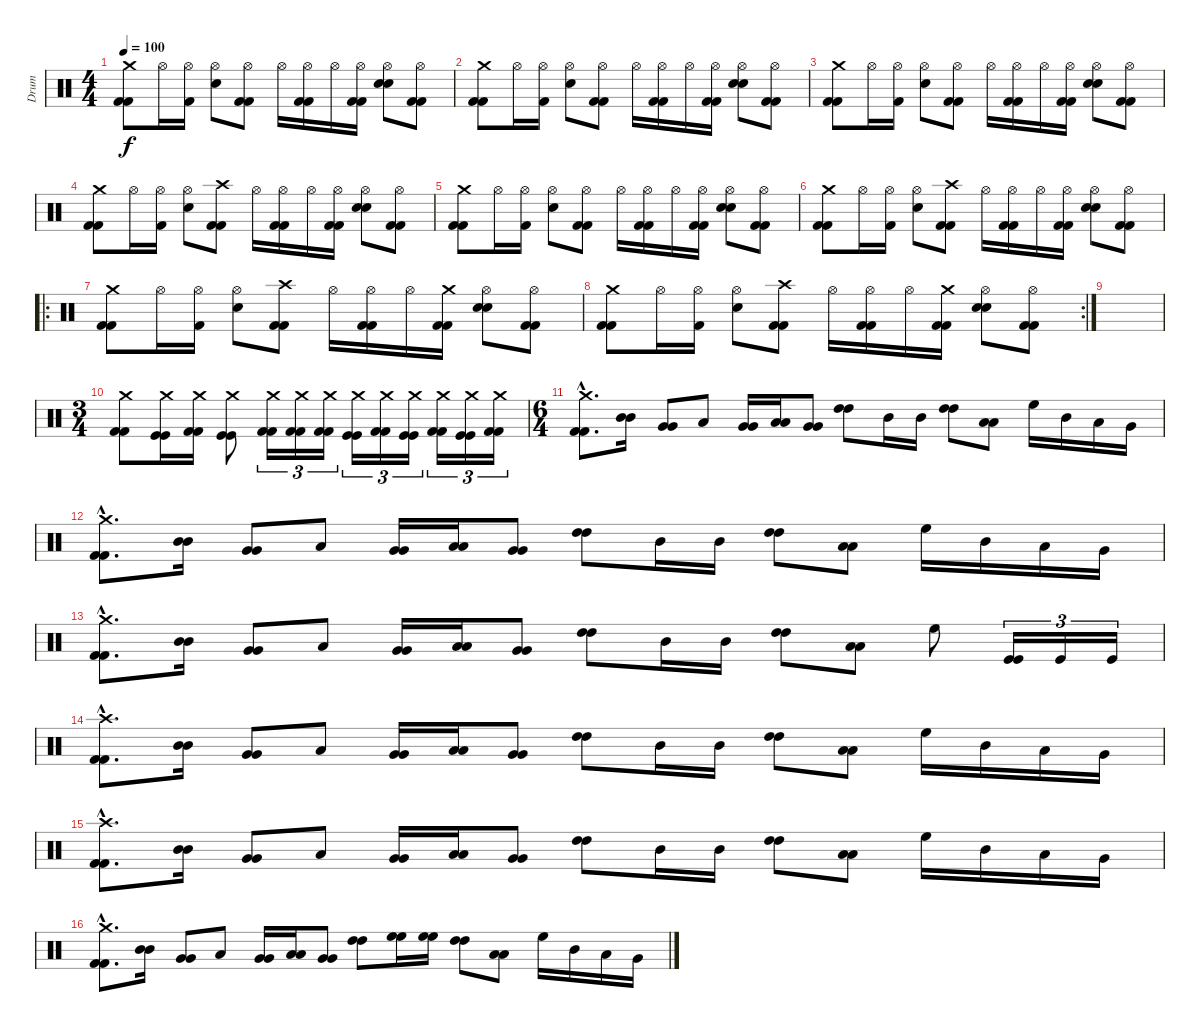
\track ("Drum" "Drum") {instrument percussion}
\staff {score}
\articulation defaults
\ts (4 4)
\tempo 100
\clef neutral
\ks c
("Crash medium (hit)" "Kick (hit) 2" "Kick (hit) 2").8{dy f} "Hi-Hat (open)".16 ("Hi-Hat (open)" "Kick (hit) 2").16 ("Hi-Hat (open)" "Snare (hit) 2").8 ("Hi-Hat (open)" "Kick (hit) 2" "Kick (hit) 2").8 "Hi-Hat (open)".16 ("Hi-Hat (open)" "Kick (hit) 2" "Kick (hit) 2").16 "Hi-Hat (open)".16 ("Hi-Hat (open)" "Kick (hit) 2" "Kick (hit) 2").16 ("Hi-Hat (open)" "Snare (hit) 2" "Snare (hit) 2").8 ("Hi-Hat (open)" "Kick (hit) 2" "Kick (hit) 2").8 |
("Crash medium (hit)" "Kick (hit) 2" "Kick (hit) 2").8 "Hi-Hat (open)".16 ("Hi-Hat (open)" "Kick (hit) 2").16 ("Hi-Hat (open)" "Snare (hit) 2").8 ("Hi-Hat (open)" "Kick (hit) 2" "Kick (hit) 2").8 "Hi-Hat (open)".16 ("Hi-Hat (open)" "Kick (hit) 2" "Kick (hit) 2").16 "Hi-Hat (open)".16 ("Hi-Hat (open)" "Kick (hit) 2" "Kick (hit) 2").16 ("Hi-Hat (open)" "Snare (hit) 2" "Snare (hit) 2").8 ("Hi-Hat (open)" "Kick (hit) 2" "Kick (hit) 2").8 |
("Crash medium (hit)" "Kick (hit) 2" "Kick (hit) 2").8 "Hi-Hat (open)".16 ("Hi-Hat (open)" "Kick (hit) 2").16 ("Hi-Hat (open)" "Snare (hit) 2").8 ("Hi-Hat (open)" "Kick (hit) 2" "Kick (hit) 2").8 "Hi-Hat (open)".16 ("Hi-Hat (open)" "Kick (hit) 2" "Kick (hit) 2").16 "Hi-Hat (open)".16 ("Hi-Hat (open)" "Kick (hit) 2" "Kick (hit) 2").16 ("Hi-Hat (open)" "Snare (hit) 2" "Snare (hit) 2").8 ("Hi-Hat (open)" "Kick (hit) 2" "Kick (hit) 2").8 |
("Crash medium (hit)" "Kick (hit) 2" "Kick (hit) 2").8 "Hi-Hat (open)".16 ("Hi-Hat (open)" "Kick (hit) 2").16 ("Hi-Hat (open)" "Snare (hit) 2").8 ("Crash high (hit)" "Kick (hit) 2" "Kick (hit) 2").8 "Hi-Hat (open)".16 ("Hi-Hat (open)" "Kick (hit) 2" "Kick (hit) 2").16 "Hi-Hat (open)".16 ("Hi-Hat (open)" "Kick (hit) 2" "Kick (hit) 2").16 ("Hi-Hat (open)" "Snare (hit) 2" "Snare (hit) 2").8 ("Hi-Hat (open)" "Kick (hit) 2" "Kick (hit) 2").8 |
("Crash medium (hit)" "Kick (hit) 2" "Kick (hit) 2").8 "Hi-Hat (open)".16 ("Hi-Hat (open)" "Kick (hit) 2").16 ("Hi-Hat (open)" "Snare (hit) 2").8 ("Hi-Hat (open)" "Kick (hit) 2" "Kick (hit) 2").8 "Hi-Hat (open)".16 ("Hi-Hat (open)" "Kick (hit) 2" "Kick (hit) 2").16 "Hi-Hat (open)".16 ("Hi-Hat (open)" "Kick (hit) 2" "Kick (hit) 2").16 ("Hi-Hat (open)" "Snare (hit) 2" "Snare (hit) 2").8 ("Hi-Hat (open)" "Kick (hit) 2" "Kick (hit) 2").8 |
("Crash medium (hit)" "Kick (hit) 2" "Kick (hit) 2").8 "Hi-Hat (open)".16 ("Hi-Hat (open)" "Kick (hit) 2").16 ("Hi-Hat (open)" "Snare (hit) 2").8 ("Crash high (hit)" "Kick (hit) 2" "Kick (hit) 2").8 "Hi-Hat (open)".16 ("Hi-Hat (open)" "Kick (hit) 2" "Kick (hit) 2").16 "Hi-Hat (open)".16 ("Hi-Hat (open)" "Kick (hit) 2" "Kick (hit) 2").16 ("Hi-Hat (open)" "Snare (hit) 2" "Snare (hit) 2").8 ("Hi-Hat (open)" "Kick (hit) 2" "Kick (hit) 2").8 |
\ro
("Crash medium (hit)" "Kick (hit) 2" "Kick (hit) 2").8 "Hi-Hat (open)".16 ("Hi-Hat (open)" "Kick (hit) 2").16 ("Hi-Hat (open)" "Snare (hit) 2").8 ("Crash high (hit)" "Kick (hit) 2" "Kick (hit) 2").8 "Hi-Hat (open)".16 ("Hi-Hat (open)" "Kick (hit) 2" "Kick (hit) 2").16 "Hi-Hat (open)".16 ("Crash medium (hit)" "Kick (hit) 2" "Kick (hit) 2").16 ("Hi-Hat (open)" "Snare (hit) 2" "Snare (hit) 2").8 ("Hi-Hat (open)" "Kick (hit) 2" "Kick (hit) 2").8 |
\rc 2
("Crash medium (hit)" "Kick (hit) 2" "Kick (hit) 2").8 "Hi-Hat (open)".16 ("Hi-Hat (open)" "Kick (hit) 2").16 ("Hi-Hat (open)" "Snare (hit) 2").8 ("Crash high (hit)" "Kick (hit) 2" "Kick (hit) 2").8 "Hi-Hat (open)".16 ("Hi-Hat (open)" "Kick (hit) 2" "Kick (hit) 2").16 "Hi-Hat (open)".16 ("Crash medium (hit)" "Kick (hit) 2" "Kick (hit) 2").16 ("Hi-Hat (open)" "Snare (hit) 2" "Snare (hit) 2").8 ("Hi-Hat (open)" "Kick (hit) 2" "Kick (hit) 2").8 |
|
\ts (3 4)
("Crash medium (hit)" "Kick (hit) 2" "Kick (hit) 2").8 ("Crash medium (hit)" "Kick (hit)" "Kick (hit)").16 ("Crash medium (hit)" "Kick (hit) 2" "Kick (hit) 2").16 ("Crash medium (hit)" "Kick (hit)" "Kick (hit)").8 ("Crash medium (hit)" "Kick (hit) 2" "Kick (hit) 2").16{tu (3 2)} ("Crash medium (hit)" "Kick (hit) 2" "Kick (hit) 2").16{tu (3 2)} ("Crash medium (hit)" "Kick (hit) 2" "Kick (hit) 2").16{tu (3 2)} ("Crash medium (hit)" "Kick (hit)" "Kick (hit)").16{tu (3 2)} ("Crash medium (hit)" "Kick (hit) 2" "Kick (hit) 2").16{tu (3 2)} ("Crash medium (hit)" "Kick (hit)" "Kick (hit)").16{tu (3 2)} ("Crash medium (hit)" "Kick (hit) 2" "Kick (hit) 2").16{tu (3 2)} ("Crash medium (hit)" "Kick (hit)" "Kick (hit)").16{tu (3 2)} ("Crash medium (hit)" "Kick (hit) 2" "Kick (hit) 2").16{tu (3 2)} |
\ts (6 4)
("Crash medium (hit)"{hac} "Kick (hit) 2"{hac} "Kick (hit) 2"{hac}).8{d} ("Mid Tom (hit)" "Mid Tom (hit)").16 ("Very Low Tom (hit)" "Very Low Tom (hit)").8 "Low Tom (hit)".8 ("Very Low Tom (hit)" "Very Low Tom (hit)").16 ("Low Tom (hit)" "Low Tom (hit)").16 ("Very Low Tom (hit)" "Very Low Tom (hit)").8 ("High Tom (hit)" "High Tom (hit)").8 "Mid Tom (hit)".16 "Mid Tom (hit)".16 ("High Tom (hit)" "High Tom (hit)").8 ("Low Tom (hit)" "Low Tom (hit)").8 "High Floor Tom (hit)".16 "Mid Tom (hit)".16 "Low Tom (hit)".16 "Very Low Tom (hit)".16 |
("Crash medium (hit)"{hac} "Kick (hit) 2"{hac} "Kick (hit) 2"{hac}).8{d} ("Mid Tom (hit)" "Mid Tom (hit)").16 ("Very Low Tom (hit)" "Very Low Tom (hit)").8 "Low Tom (hit)".8 ("Very Low Tom (hit)" "Very Low Tom (hit)").16 ("Low Tom (hit)" "Low Tom (hit)").16 ("Very Low Tom (hit)" "Very Low Tom (hit)").8 ("High Tom (hit)" "High Tom (hit)").8 "Mid Tom (hit)".16 "Mid Tom (hit)".16 ("High Tom (hit)" "High Tom (hit)").8 ("Low Tom (hit)" "Low Tom (hit)").8 "High Floor Tom (hit)".16 "Mid Tom (hit)".16 "Low Tom (hit)".16 "Very Low Tom (hit)".16 |
("Crash medium (hit)"{hac} "Kick (hit) 2"{hac} "Kick (hit) 2"{hac}).8{d} ("Mid Tom (hit)" "Mid Tom (hit)").16 ("Very Low Tom (hit)" "Very Low Tom (hit)").8 "Low Tom (hit)".8 ("Very Low Tom (hit)" "Very Low Tom (hit)").16 ("Low Tom (hit)" "Low Tom (hit)").16 ("Very Low Tom (hit)" "Very Low Tom (hit)").8 ("High Tom (hit)" "High Tom (hit)").8 "Mid Tom (hit)".16 "Mid Tom (hit)".16 ("High Tom (hit)" "High Tom (hit)").8 ("Low Tom (hit)" "Low Tom (hit)").8 "High Floor Tom (hit)".8 ("Kick (hit)" "Kick (hit)").16{tu (3 2)} "Kick (hit)".16{tu (3 2)} "Kick (hit)".16{tu (3 2)} |
("Crash high (hit)"{hac} "Kick (hit) 2"{hac} "Kick (hit) 2"{hac}).8{d} ("Mid Tom (hit)" "Mid Tom (hit)").16 ("Very Low Tom (hit)" "Very Low Tom (hit)").8 "Low Tom (hit)".8 ("Very Low Tom (hit)" "Very Low Tom (hit)").16 ("Low Tom (hit)" "Low Tom (hit)").16 ("Very Low Tom (hit)" "Very Low Tom (hit)").8 ("High Tom (hit)" "High Tom (hit)").8 "Mid Tom (hit)".16 "Mid Tom (hit)".16 ("High Tom (hit)" "High Tom (hit)").8 ("Low Tom (hit)" "Low Tom (hit)").8 "High Floor Tom (hit)".16 "Mid Tom (hit)".16 "Low Tom (hit)".16 "Very Low Tom (hit)".16 |
("Crash high (hit)"{hac} "Kick (hit) 2"{hac} "Kick (hit) 2"{hac}).8{d} ("Mid Tom (hit)" "Mid Tom (hit)").16 ("Very Low Tom (hit)" "Very Low Tom (hit)").8 "Low Tom (hit)".8 ("Very Low Tom (hit)" "Very Low Tom (hit)").16 ("Low Tom (hit)" "Low Tom (hit)").16 ("Very Low Tom (hit)" "Very Low Tom (hit)").8 ("High Tom (hit)" "High Tom (hit)").8 "Mid Tom (hit)".16 "Mid Tom (hit)".16 ("High Tom (hit)" "High Tom (hit)").8 ("Low Tom (hit)" "Low Tom (hit)").8 "High Floor Tom (hit)".16 "Mid Tom (hit)".16 "Low Tom (hit)".16 "Very Low Tom (hit)".16 |
("Crash medium (hit)"{hac} "Kick (hit) 2"{hac} "Kick (hit) 2"{hac}).8{d} ("Mid Tom (hit)" "Mid Tom (hit)").16 ("Very Low Tom (hit)" "Very Low Tom (hit)").8 "Low Tom (hit)".8 ("Very Low Tom (hit)" "Very Low Tom (hit)").16 ("Low Tom (hit)" "Low Tom (hit)").16 ("Very Low Tom (hit)" "Very Low Tom (hit)").8 ("High Tom (hit)" "High Tom (hit)").8 ("High Floor Tom (hit)" "High Floor Tom (hit)").16 ("High Floor Tom (hit)" "High Floor Tom (hit)").16 ("High Tom (hit)" "High Tom (hit)").8 ("Low Tom (hit)" "Low Tom (hit)").8 "High Floor Tom (hit)".16 "Mid Tom (hit)".16 "Low Tom (hit)".16 "Very Low Tom (hit)".16
